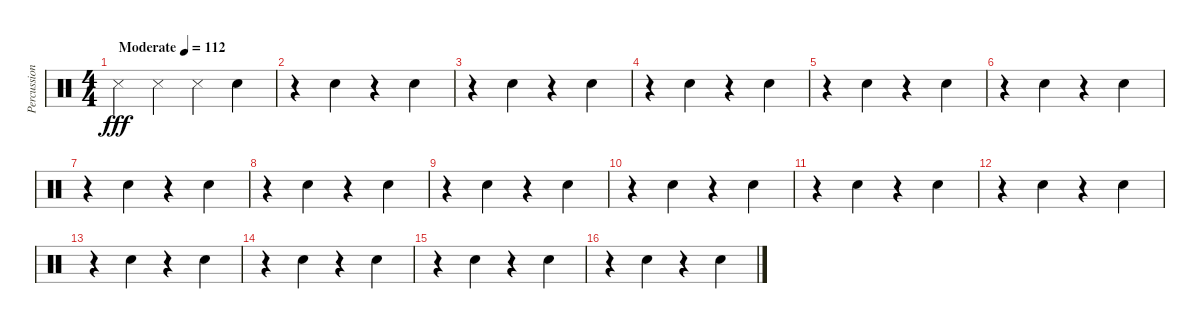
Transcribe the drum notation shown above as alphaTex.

\track ("Percussion" "Percussion") {instrument percussion}
\staff {score}
\articulation defaults
\ts (4 4)
\tempo (112 "Moderate")
\clef neutral
\ks c "Snare (side stick) 3".4{dy fff} "Snare (side stick) 3".4 "Snare (side stick) 3".4 "Snare (hit) 2".4
|
r.4 "Snare (hit) 2".4 r.4 "Snare (hit) 2".4 |
r.4 "Snare (hit) 2".4 r.4 "Snare (hit) 2".4 |
r.4 "Snare (hit) 2".4 r.4 "Snare (hit) 2".4 |
r.4 "Snare (hit) 2".4 r.4 "Snare (hit) 2".4 |
r.4 "Snare (hit) 2".4 r.4 "Snare (hit) 2".4 |
r.4 "Snare (hit) 2".4 r.4 "Snare (hit) 2".4 |
r.4 "Snare (hit) 2".4 r.4 "Snare (hit) 2".4 |
r.4 "Snare (hit) 2".4 r.4 "Snare (hit) 2".4 |
r.4 "Snare (hit) 2".4 r.4 "Snare (hit) 2".4 |
r.4 "Snare (hit) 2".4 r.4 "Snare (hit) 2".4 |
r.4 "Snare (hit) 2".4 r.4 "Snare (hit) 2".4 |
r.4 "Snare (hit) 2".4 r.4 "Snare (hit) 2".4 |
r.4 "Snare (hit) 2".4 r.4 "Snare (hit) 2".4 |
r.4 "Snare (hit) 2".4 r.4 "Snare (hit) 2".4 |
r.4 "Snare (hit) 2".4 r.4 "Snare (hit) 2".4
